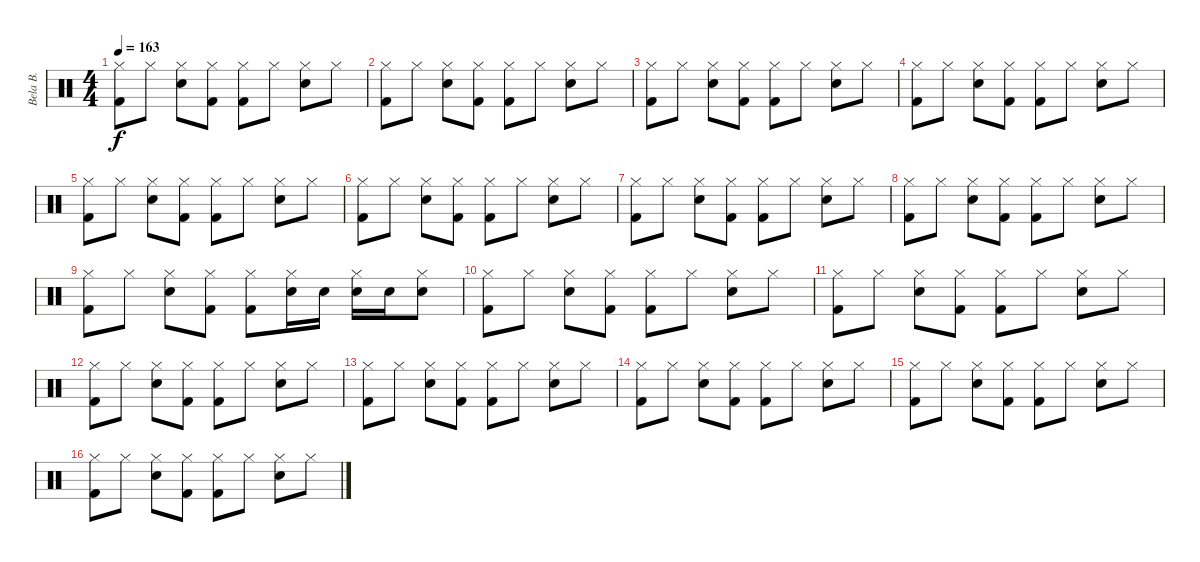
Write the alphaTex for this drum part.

\track ("Bela B." "Bela B.") {instrument percussion}
\staff {score}
\articulation defaults
\ts (4 4)
\tempo 163
\clef neutral
\ks c
("Hi-Hat (closed)" "Kick (hit) 2").8{dy f} "Hi-Hat (closed)".8 ("Snare (hit) 2" "Hi-Hat (closed)").8 ("Hi-Hat (closed)" "Kick (hit) 2").8 ("Kick (hit) 2" "Hi-Hat (closed)").8 "Hi-Hat (closed)".8 ("Snare (hit) 2" "Hi-Hat (closed)").8 "Hi-Hat (closed)".8 |
("Kick (hit) 2" "Hi-Hat (closed)").8 "Hi-Hat (closed)".8 ("Hi-Hat (closed)" "Snare (hit) 2").8 ("Kick (hit) 2" "Hi-Hat (closed)").8 ("Hi-Hat (closed)" "Kick (hit) 2").8 "Hi-Hat (closed)".8 ("Snare (hit) 2" "Hi-Hat (closed)").8 "Hi-Hat (closed)".8 |
("Kick (hit) 2" "Hi-Hat (closed)").8 "Hi-Hat (closed)".8 ("Hi-Hat (closed)" "Snare (hit) 2").8 ("Hi-Hat (closed)" "Kick (hit) 2").8 ("Kick (hit) 2" "Hi-Hat (closed)").8 "Hi-Hat (closed)".8 ("Hi-Hat (closed)" "Snare (hit) 2").8 "Hi-Hat (closed)".8 |
("Kick (hit) 2" "Hi-Hat (closed)").8 "Hi-Hat (closed)".8 ("Hi-Hat (closed)" "Snare (hit) 2").8 ("Kick (hit) 2" "Hi-Hat (closed)").8 ("Hi-Hat (closed)" "Kick (hit) 2").8 "Hi-Hat (closed)".8 ("Hi-Hat (closed)" "Snare (hit) 2").8 "Hi-Hat (closed)".8 |
("Kick (hit) 2" "Hi-Hat (closed)").8 "Hi-Hat (closed)".8 ("Snare (hit) 2" "Hi-Hat (closed)").8 ("Hi-Hat (closed)" "Kick (hit) 2").8 ("Hi-Hat (closed)" "Kick (hit) 2").8 "Hi-Hat (closed)".8 ("Snare (hit) 2" "Hi-Hat (closed)").8 "Hi-Hat (closed)".8 |
("Kick (hit) 2" "Hi-Hat (closed)").8 "Hi-Hat (closed)".8 ("Snare (hit) 2" "Hi-Hat (closed)").8 ("Kick (hit) 2" "Hi-Hat (closed)").8 ("Kick (hit) 2" "Hi-Hat (closed)").8 "Hi-Hat (closed)".8 ("Snare (hit) 2" "Hi-Hat (closed)").8 "Hi-Hat (closed)".8 |
("Hi-Hat (closed)" "Kick (hit) 2").8 "Hi-Hat (closed)".8 ("Hi-Hat (closed)" "Snare (hit) 2").8 ("Kick (hit) 2" "Hi-Hat (closed)").8 ("Hi-Hat (closed)" "Kick (hit) 2").8 "Hi-Hat (closed)".8 ("Snare (hit) 2" "Hi-Hat (closed)").8 "Hi-Hat (closed)".8 |
("Kick (hit) 2" "Hi-Hat (closed)").8 "Hi-Hat (closed)".8 ("Hi-Hat (closed)" "Snare (hit) 2").8 ("Hi-Hat (closed)" "Kick (hit) 2").8 ("Kick (hit) 2" "Hi-Hat (closed)").8 "Hi-Hat (closed)".8 ("Snare (hit) 2" "Hi-Hat (closed)").8 "Hi-Hat (closed)".8 |
("Hi-Hat (closed)" "Kick (hit) 2").8 "Hi-Hat (closed)".8 ("Snare (hit) 2" "Hi-Hat (closed)").8 ("Hi-Hat (closed)" "Kick (hit) 2").8 ("Kick (hit) 2" "Hi-Hat (closed)").8 ("Snare (hit) 2" "Hi-Hat (closed)").16 "Snare (hit) 2".16 ("Hi-Hat (closed)" "Snare (hit) 2").16 "Snare (hit) 2".16 ("Hi-Hat (closed)" "Snare (hit) 2").8 |
("Kick (hit) 2" "Hi-Hat (closed)").8 "Hi-Hat (closed)".8 ("Hi-Hat (closed)" "Snare (hit) 2").8 ("Kick (hit) 2" "Hi-Hat (closed)").8 ("Hi-Hat (closed)" "Kick (hit) 2").8 "Hi-Hat (closed)".8 ("Snare (hit) 2" "Hi-Hat (closed)").8 "Hi-Hat (closed)".8 |
("Kick (hit) 2" "Hi-Hat (closed)").8 "Hi-Hat (closed)".8 ("Hi-Hat (closed)" "Snare (hit) 2").8 ("Hi-Hat (closed)" "Kick (hit) 2").8 ("Kick (hit) 2" "Hi-Hat (closed)").8 "Hi-Hat (closed)".8 ("Hi-Hat (closed)" "Snare (hit) 2").8 "Hi-Hat (closed)".8 |
("Kick (hit) 2" "Hi-Hat (closed)").8 "Hi-Hat (closed)".8 ("Hi-Hat (closed)" "Snare (hit) 2").8 ("Kick (hit) 2" "Hi-Hat (closed)").8 ("Hi-Hat (closed)" "Kick (hit) 2").8 "Hi-Hat (closed)".8 ("Hi-Hat (closed)" "Snare (hit) 2").8 "Hi-Hat (closed)".8 |
("Kick (hit) 2" "Hi-Hat (closed)").8 "Hi-Hat (closed)".8 ("Snare (hit) 2" "Hi-Hat (closed)").8 ("Hi-Hat (closed)" "Kick (hit) 2").8 ("Hi-Hat (closed)" "Kick (hit) 2").8 "Hi-Hat (closed)".8 ("Snare (hit) 2" "Hi-Hat (closed)").8 "Hi-Hat (closed)".8 |
("Kick (hit) 2" "Hi-Hat (closed)").8 "Hi-Hat (closed)".8 ("Snare (hit) 2" "Hi-Hat (closed)").8 ("Hi-Hat (closed)" "Kick (hit) 2").8 ("Hi-Hat (closed)" "Kick (hit) 2").8 "Hi-Hat (closed)".8 ("Snare (hit) 2" "Hi-Hat (closed)").8 "Hi-Hat (closed)".8 |
("Kick (hit) 2" "Hi-Hat (closed)").8 "Hi-Hat (closed)".8 ("Snare (hit) 2" "Hi-Hat (closed)").8 ("Hi-Hat (closed)" "Kick (hit) 2").8 ("Hi-Hat (closed)" "Kick (hit) 2").8 "Hi-Hat (closed)".8 ("Snare (hit) 2" "Hi-Hat (closed)").8 "Hi-Hat (closed)".8 |
("Kick (hit) 2" "Hi-Hat (closed)").8 "Hi-Hat (closed)".8 ("Snare (hit) 2" "Hi-Hat (closed)").8 ("Hi-Hat (closed)" "Kick (hit) 2").8 ("Hi-Hat (closed)" "Kick (hit) 2").8 "Hi-Hat (closed)".8 ("Snare (hit) 2" "Hi-Hat (closed)").8 "Hi-Hat (closed)".8
